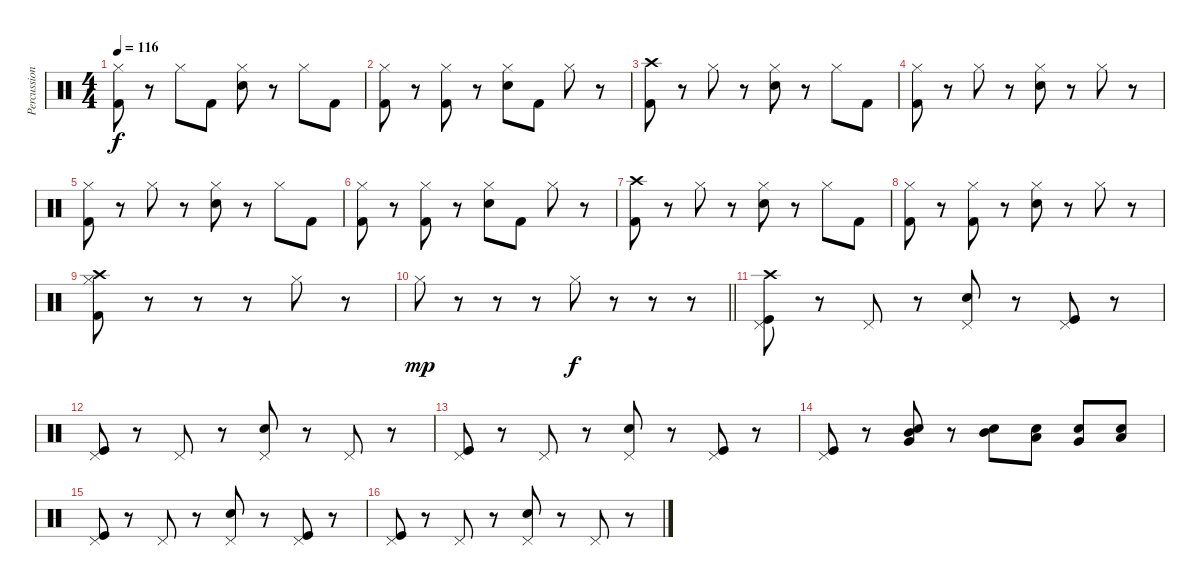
\track ("Percussion" "Percussion") {instrument percussion}
\staff {score}
\articulation defaults
\ts (4 4)
\tempo 116
\clef neutral
\ks c
("Hi-Hat (closed)" "Kick (hit) 2").8{dy f} r.8 "Hi-Hat (closed)".8 "Kick (hit) 2".8 ("Hi-Hat (closed)" "Snare (hit) 2").8 r.8 "Hi-Hat (closed)".8 "Kick (hit) 2".8 |
("Hi-Hat (closed)" "Kick (hit) 2").8 r.8 ("Hi-Hat (closed)" "Kick (hit) 2").8 r.8 ("Hi-Hat (closed)" "Snare (hit) 2").8 "Kick (hit) 2".8 "Hi-Hat (closed)".8 r.8 |
("Crash high (hit)" "Kick (hit) 2").8 r.8 "Hi-Hat (closed)".8 r.8 ("Hi-Hat (closed)" "Snare (hit) 2").8 r.8 "Hi-Hat (closed)".8 "Kick (hit) 2".8 |
("Hi-Hat (closed)" "Kick (hit) 2").8 r.8 "Hi-Hat (closed)".8 r.8 ("Hi-Hat (closed)" "Snare (hit) 2").8 r.8 "Hi-Hat (closed)".8 r.8 |
("Hi-Hat (closed)" "Kick (hit) 2").8 r.8 "Hi-Hat (closed)".8 r.8 ("Hi-Hat (closed)" "Snare (hit) 2").8 r.8 "Hi-Hat (closed)".8 "Kick (hit) 2".8 |
("Hi-Hat (closed)" "Kick (hit) 2").8 r.8 ("Hi-Hat (closed)" "Kick (hit) 2").8 r.8 ("Hi-Hat (closed)" "Snare (hit) 2").8 "Kick (hit) 2".8 "Hi-Hat (closed)".8 r.8 |
("Crash high (hit)" "Kick (hit) 2").8 r.8 "Hi-Hat (closed)".8 r.8 ("Hi-Hat (closed)" "Snare (hit) 2").8 r.8 "Hi-Hat (closed)".8 "Kick (hit) 2".8 |
("Hi-Hat (closed)" "Kick (hit) 2").8 r.8 ("Hi-Hat (closed)" "Kick (hit) 2").8 r.8 ("Hi-Hat (closed)" "Snare (hit) 2").8 r.8 "Hi-Hat (closed)".8 r.8 |
("Crash high (hit)" "Hi-Hat (closed)" "Kick (hit) 2").8 r.8 r.8 r.8 "Hi-Hat (closed)".8 r.8 |
\barLineRight lightlight "Hi-Hat (closed)".8{dy mp}
r.8 r.8 r.8 "Hi-Hat (closed)".8{dy f} r.8 r.8 r.8 |
("Kick (hit)" "Crash high (hit)" "Pedal Hi-Hat (hit)").8 r.8 "Pedal Hi-Hat (hit)".8 r.8 ("Snare (hit) 2" "Pedal Hi-Hat (hit)").8 r.8 ("Kick (hit)" "Pedal Hi-Hat (hit)").8 r.8 |
("Kick (hit)" "Pedal Hi-Hat (hit)").8 r.8 "Pedal Hi-Hat (hit)".8 r.8 ("Snare (hit) 2" "Pedal Hi-Hat (hit)").8 r.8 "Pedal Hi-Hat (hit)".8 r.8 |
("Kick (hit)" "Pedal Hi-Hat (hit)").8 r.8 "Pedal Hi-Hat (hit)".8 r.8 ("Snare (hit) 2" "Pedal Hi-Hat (hit)").8 r.8 ("Kick (hit)" "Pedal Hi-Hat (hit)").8 r.8 |
("Kick (hit)" "Pedal Hi-Hat (hit)").8 r.8 ("Snare (hit) 2" "Mid Tom (hit)" "Very Low Tom (hit)").8 r.8 ("Snare (hit) 2" "Mid Tom (hit)").8 ("Low Tom (hit)" "Snare (hit) 2").8 ("Snare (hit) 2" "Very Low Tom (hit)").8 ("Snare (hit) 2" "Low Floor Tom (hit)").8 |
("Kick (hit)" "Pedal Hi-Hat (hit)").8 r.8 "Pedal Hi-Hat (hit)".8 r.8 ("Snare (hit) 2" "Pedal Hi-Hat (hit)").8 r.8 ("Kick (hit)" "Pedal Hi-Hat (hit)").8 r.8 |
("Kick (hit)" "Pedal Hi-Hat (hit)").8 r.8 "Pedal Hi-Hat (hit)".8 r.8 ("Snare (hit) 2" "Pedal Hi-Hat (hit)").8 r.8 "Pedal Hi-Hat (hit)".8 r.8
